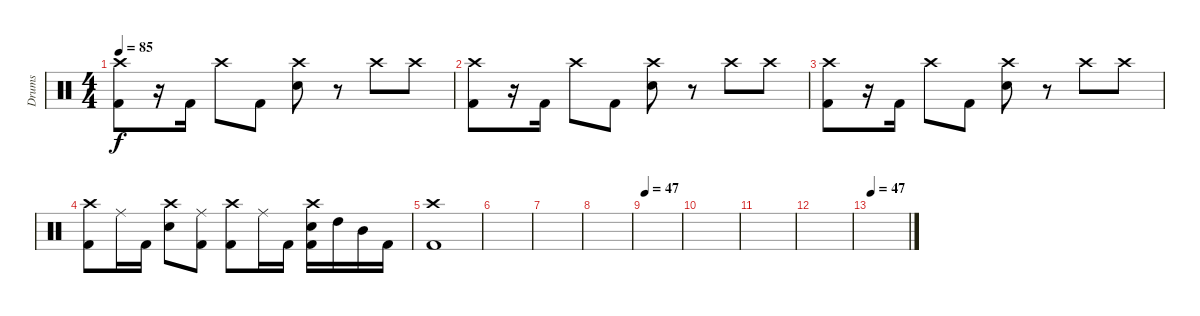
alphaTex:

\track ("Drums" "Drums") {instrument percussion}
\staff {score}
\articulation defaults
\ts (4 4)
\tempo 85
\clef neutral
\ks c
("Crash high (hit)" "Kick (hit) 2").8{dy f} r.16 "Kick (hit) 2".16 "Crash high (hit)".8 "Kick (hit) 2".8 ("Crash high (hit)" "Electric Snare (hit)").8 r.8 "Crash high (hit)".8 "Crash high (hit)".8 |
("Crash high (hit)" "Kick (hit) 2").8 r.16 "Kick (hit) 2".16 "Crash high (hit)".8 "Kick (hit) 2".8 ("Crash high (hit)" "Electric Snare (hit)").8 r.8 "Crash high (hit)".8 "Crash high (hit)".8 |
("Crash high (hit)" "Kick (hit) 2").8 r.16 "Kick (hit) 2".16 "Crash high (hit)".8 "Kick (hit) 2".8 ("Crash high (hit)" "Electric Snare (hit)").8 r.8 "Crash high (hit)".8 "Crash high (hit)".8 |
("Crash high (hit)" "Kick (hit) 2").8 "Ride (middle)".16 "Kick (hit) 2".16 ("Electric Snare (hit)" "Crash high (hit)").8 ("Kick (hit) 2" "Ride (middle)").8 ("Crash high (hit)" "Kick (hit) 2").8 "Ride (middle)".16 "Kick (hit) 2".16 ("Electric Snare (hit)" "Kick (hit) 2" "Crash high (hit)").16 "High Tom (hit)".16 "Mid Tom (hit)".16 "Kick (hit) 2".16 |
("Kick (hit) 2" "Crash high (hit)").1 |
|
|
|
\tempo 47
|
|
|
|
\tempo 47
